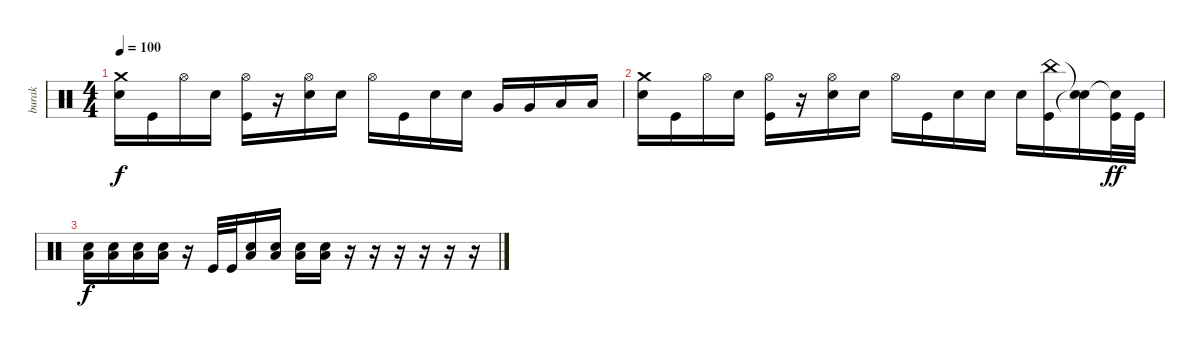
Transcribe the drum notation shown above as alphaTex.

\track ("burak" "burak") {instrument percussion}
\staff {score}
\articulation defaults
\ts (4 4)
\tempo 100
\clef neutral
\ks c
("Crash medium (hit)" "Electric Snare (hit)").16{dy f} "Kick (hit)".16 "Hi-Hat (open)".16 "Electric Snare (hit)".16 ("Hi-Hat (open)" "Kick (hit)").16 r.16 ("Hi-Hat (open)" "Electric Snare (hit)").16 "Electric Snare (hit)".16 "Hi-Hat (open)".16 "Kick (hit)".16 "Electric Snare (hit)".16 "Electric Snare (hit)".16 "Very Low Tom (hit)".16 "Very Low Tom (hit)".16 "Low Floor Tom (hit)".16 "Low Floor Tom (hit)".16 |
("Crash medium (hit)" "Electric Snare (hit)").16 "Kick (hit)".16 "Hi-Hat (open)".16 "Electric Snare (hit)".16 ("Hi-Hat (open)" "Kick (hit)").16 r.16 ("Hi-Hat (open)" "Electric Snare (hit)").16 "Electric Snare (hit)".16 "Hi-Hat (open)".16 "Kick (hit)".16 "Electric Snare (hit)".16 "Electric Snare (hit)".16 "Electric Snare (hit)".16 ("China (hit)" "Kick (hit)").16 ("Snare (hit)"{t} "Snare (hit)"{t}).16 ("Snare (hit)"{t} "Kick (hit)").32{dy ff} "Kick (hit)".32 |
("Low Floor Tom (hit)" "Electric Snare (hit)").16{dy f} ("Low Floor Tom (hit)" "Electric Snare (hit)").16 ("Low Floor Tom (hit)" "Electric Snare (hit)").16 ("Low Floor Tom (hit)" "Electric Snare (hit)").16 r.16 "Kick (hit)".32 "Kick (hit)".32 ("Low Floor Tom (hit)" "Electric Snare (hit)").16 ("Low Floor Tom (hit)" "Electric Snare (hit)").16 ("Low Floor Tom (hit)" "Electric Snare (hit)").16 ("Low Floor Tom (hit)" "Electric Snare (hit)").16 r.16 r.16 r.16 r.16 r.16 r.16
